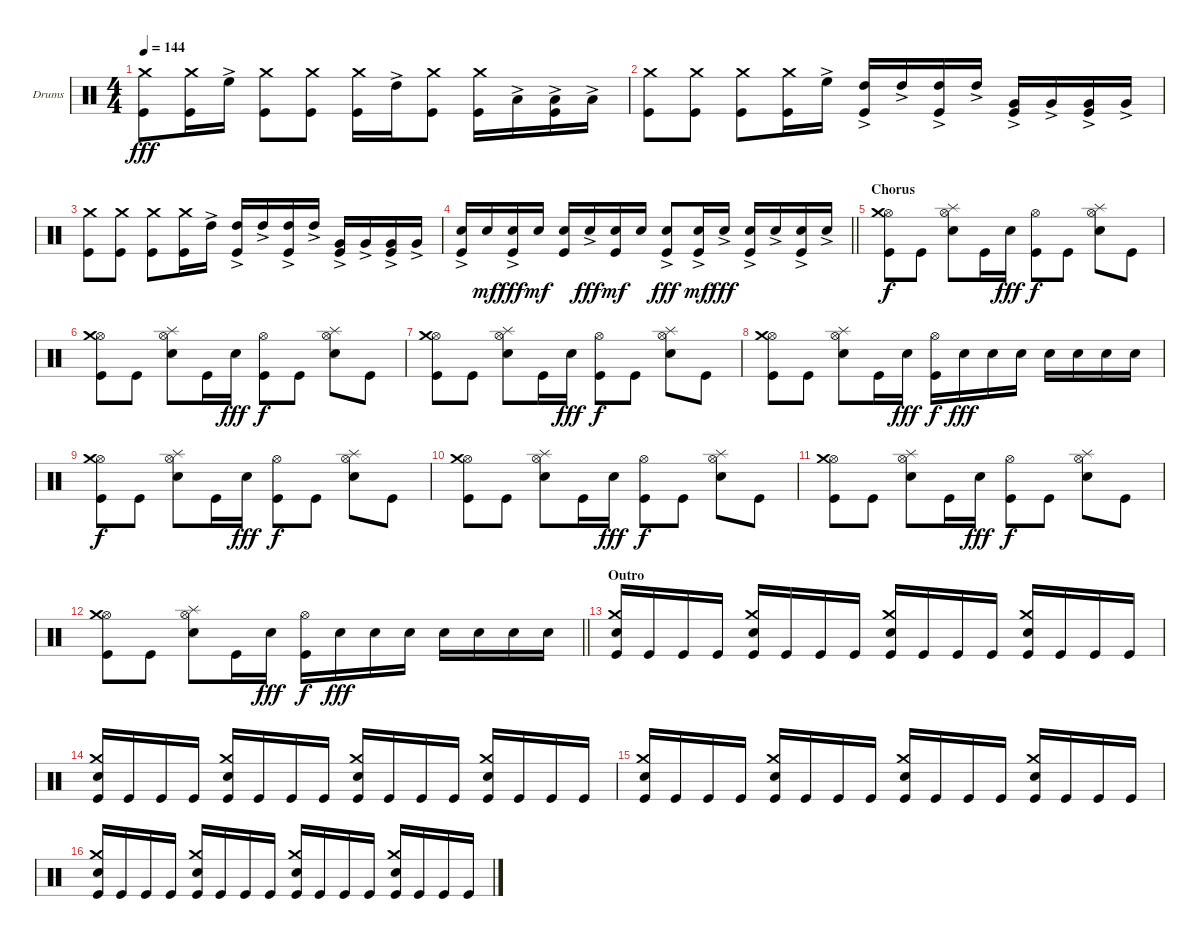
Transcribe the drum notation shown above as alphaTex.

\bracketExtendMode groupsimilarinstruments
\firstSystemTrackNameOrientation horizontal
\otherSystemsTrackNameOrientation horizontal
\track ("Drumkit" "Drums") {instrument percussion}
\staff {score}
\articulation defaults
\ts (4 4)
\tempo 144
\clef neutral
\ks c
("Kick (hit)" "Crash medium (hit)").8{dy fff} ("Kick (hit)" "Crash medium (hit)").16 "High Floor Tom (hit)"{ac}.16 ("Kick (hit)" "Crash medium (hit)").8 ("Kick (hit)" "Crash medium (hit)").8 ("Kick (hit)" "Crash medium (hit)").16 "High Tom (hit)"{ac}.16 ("Crash medium (hit)" "Kick (hit)").8 ("Kick (hit)" "Crash medium (hit)").16 "Low Tom (hit)"{ac}.16 ("Kick (hit)" "Low Tom (hit)"{ac}).16 "Low Tom (hit)"{ac}.16 |
("Crash medium (hit)" "Kick (hit)").8 ("Crash medium (hit)" "Kick (hit)").8 ("Crash medium (hit)" "Kick (hit)").8 ("Crash medium (hit)" "Kick (hit)").16 "High Floor Tom (hit)"{ac}.16 ("High Tom (hit)"{ac} "Kick (hit)").16 "High Tom (hit)"{ac}.16 ("High Tom (hit)"{ac} "Kick (hit)").16 "High Tom (hit)"{ac}.16 ("Very Low Tom (hit)"{ac} "Kick (hit)").16 "Very Low Tom (hit)"{ac}.16 ("Very Low Tom (hit)"{ac} "Kick (hit)").16 "Very Low Tom (hit)"{ac}.16 |
("Crash medium (hit)" "Kick (hit)").8 ("Crash medium (hit)" "Kick (hit)").8 ("Crash medium (hit)" "Kick (hit)").8 ("Crash medium (hit)" "Kick (hit)").16 "High Tom (hit)"{ac}.16 ("High Tom (hit)"{ac} "Kick (hit)").16 "High Tom (hit)"{ac}.16 ("High Tom (hit)"{ac} "Kick (hit)").16 "High Tom (hit)"{ac}.16 ("Very Low Tom (hit)"{ac} "Kick (hit)").16 "Very Low Tom (hit)"{ac}.16 ("Very Low Tom (hit)"{ac} "Kick (hit)").16 "Very Low Tom (hit)"{ac}.16 |
\barLineRight lightlight
("Snare (hit) 2"{ac} "Kick (hit)").16 "Snare (hit) 2".16{dy mf} ("Snare (hit) 2"{ac} "Kick (hit)").16{dy fff} "Snare (hit) 2".16{dy mf} ("Snare (hit) 2" "Kick (hit)").16 "Snare (hit) 2"{ac}.16{dy fff} ("Snare (hit) 2" "Kick (hit)").16{dy mf} "Snare (hit) 2".16 ("Snare (hit) 2"{ac} "Kick (hit)").8{dy fff} ("Snare (hit) 2"{ac} "Kick (hit)"{ac}).16{dy mf} "Snare (hit) 2"{ac}.16{dy fff} ("Snare (hit) 2"{ac} "Kick (hit)"{ac}).16 "Snare (hit) 2"{ac}.16 ("Snare (hit) 2"{ac} "Kick (hit)"{ac}).16 "Snare (hit) 2"{ac}.16 |
\section ("" "Chorus")
("Kick (hit)" "Hi-Hat (open)" "Crash medium (hit)").8{dy f} "Kick (hit)".8 ("Snare (hit) 2" "Hi-Hat (open)" "Splash (hit)").8 "Kick (hit)".16 "Snare (hit) 2".16{dy fff} ("Kick (hit)" "Hi-Hat (open)").8{dy f} "Kick (hit)".8 ("Snare (hit) 2" "Hi-Hat (open)" "Splash (hit)").8 "Kick (hit)".8 |
("Kick (hit)" "Hi-Hat (open)" "Crash medium (hit)").8 "Kick (hit)".8 ("Snare (hit) 2" "Hi-Hat (open)" "Splash (hit)").8 "Kick (hit)".16 "Snare (hit) 2".16{dy fff} ("Kick (hit)" "Hi-Hat (open)").8{dy f} "Kick (hit)".8 ("Snare (hit) 2" "Hi-Hat (open)" "Splash (hit)").8 "Kick (hit)".8 |
("Kick (hit)" "Hi-Hat (open)" "Crash medium (hit)").8 "Kick (hit)".8 ("Snare (hit) 2" "Hi-Hat (open)" "Splash (hit)").8 "Kick (hit)".16 "Snare (hit) 2".16{dy fff} ("Kick (hit)" "Hi-Hat (open)").8{dy f} "Kick (hit)".8 ("Snare (hit) 2" "Hi-Hat (open)" "Splash (hit)").8 "Kick (hit)".8 |
("Kick (hit)" "Hi-Hat (open)" "Crash medium (hit)").8 "Kick (hit)".8 ("Snare (hit) 2" "Hi-Hat (open)" "Splash (hit)").8 "Kick (hit)".16 "Snare (hit) 2".16{dy fff} ("Kick (hit)" "Hi-Hat (open)").16{dy f} "Snare (hit) 2".16{dy fff} "Snare (hit) 2".16 "Snare (hit) 2".16 "Snare (hit) 2".16 "Snare (hit) 2".16 "Snare (hit) 2".16 "Snare (hit) 2".16 |
("Kick (hit)" "Hi-Hat (open)" "Crash medium (hit)").8{dy f} "Kick (hit)".8 ("Snare (hit) 2" "Hi-Hat (open)" "Splash (hit)").8 "Kick (hit)".16 "Snare (hit) 2".16{dy fff} ("Kick (hit)" "Hi-Hat (open)").8{dy f} "Kick (hit)".8 ("Snare (hit) 2" "Hi-Hat (open)" "Splash (hit)").8 "Kick (hit)".8 |
("Kick (hit)" "Hi-Hat (open)" "Crash medium (hit)").8 "Kick (hit)".8 ("Snare (hit) 2" "Hi-Hat (open)" "Splash (hit)").8 "Kick (hit)".16 "Snare (hit) 2".16{dy fff} ("Kick (hit)" "Hi-Hat (open)").8{dy f} "Kick (hit)".8 ("Snare (hit) 2" "Hi-Hat (open)" "Splash (hit)").8 "Kick (hit)".8 |
("Kick (hit)" "Hi-Hat (open)" "Crash medium (hit)").8 "Kick (hit)".8 ("Snare (hit) 2" "Hi-Hat (open)" "Splash (hit)").8 "Kick (hit)".16 "Snare (hit) 2".16{dy fff} ("Kick (hit)" "Hi-Hat (open)").8{dy f} "Kick (hit)".8 ("Snare (hit) 2" "Hi-Hat (open)" "Splash (hit)").8 "Kick (hit)".8 |
\barLineRight lightlight
("Kick (hit)" "Hi-Hat (open)" "Crash medium (hit)").8 "Kick (hit)".8 ("Snare (hit) 2" "Hi-Hat (open)" "Splash (hit)").8 "Kick (hit)".16 "Snare (hit) 2".16{dy fff} ("Kick (hit)" "Hi-Hat (open)").16{dy f} "Snare (hit) 2".16{dy fff} "Snare (hit) 2".16 "Snare (hit) 2".16 "Snare (hit) 2".16 "Snare (hit) 2".16 "Snare (hit) 2".16 "Snare (hit) 2".16 |
\section ("" "Outro")
("Crash medium (hit)" "Snare (hit) 2" "Kick (hit)").16 "Kick (hit)".16 "Kick (hit)".16 "Kick (hit)".16 ("Crash medium (hit)" "Snare (hit) 2" "Kick (hit)").16 "Kick (hit)".16 "Kick (hit)".16 "Kick (hit)".16 ("Crash medium (hit)" "Snare (hit) 2" "Kick (hit)").16 "Kick (hit)".16 "Kick (hit)".16 "Kick (hit)".16 ("Crash medium (hit)" "Snare (hit) 2" "Kick (hit)").16 "Kick (hit)".16 "Kick (hit)".16 "Kick (hit)".16 |
("Crash medium (hit)" "Snare (hit) 2" "Kick (hit)").16 "Kick (hit)".16 "Kick (hit)".16 "Kick (hit)".16 ("Crash medium (hit)" "Snare (hit) 2" "Kick (hit)").16 "Kick (hit)".16 "Kick (hit)".16 "Kick (hit)".16 ("Crash medium (hit)" "Snare (hit) 2" "Kick (hit)").16 "Kick (hit)".16 "Kick (hit)".16 "Kick (hit)".16 ("Crash medium (hit)" "Snare (hit) 2" "Kick (hit)").16 "Kick (hit)".16 "Kick (hit)".16 "Kick (hit)".16 |
("Crash medium (hit)" "Snare (hit) 2" "Kick (hit)").16 "Kick (hit)".16 "Kick (hit)".16 "Kick (hit)".16 ("Crash medium (hit)" "Snare (hit) 2" "Kick (hit)").16 "Kick (hit)".16 "Kick (hit)".16 "Kick (hit)".16 ("Crash medium (hit)" "Snare (hit) 2" "Kick (hit)").16 "Kick (hit)".16 "Kick (hit)".16 "Kick (hit)".16 ("Crash medium (hit)" "Snare (hit) 2" "Kick (hit)").16 "Kick (hit)".16 "Kick (hit)".16 "Kick (hit)".16 |
("Crash medium (hit)" "Snare (hit) 2" "Kick (hit)").16 "Kick (hit)".16 "Kick (hit)".16 "Kick (hit)".16 ("Crash medium (hit)" "Snare (hit) 2" "Kick (hit)").16 "Kick (hit)".16 "Kick (hit)".16 "Kick (hit)".16 ("Crash medium (hit)" "Snare (hit) 2" "Kick (hit)").16 "Kick (hit)".16 "Kick (hit)".16 "Kick (hit)".16 ("Crash medium (hit)" "Snare (hit) 2" "Kick (hit)").16 "Kick (hit)".16 "Kick (hit)".16 "Kick (hit)".16
